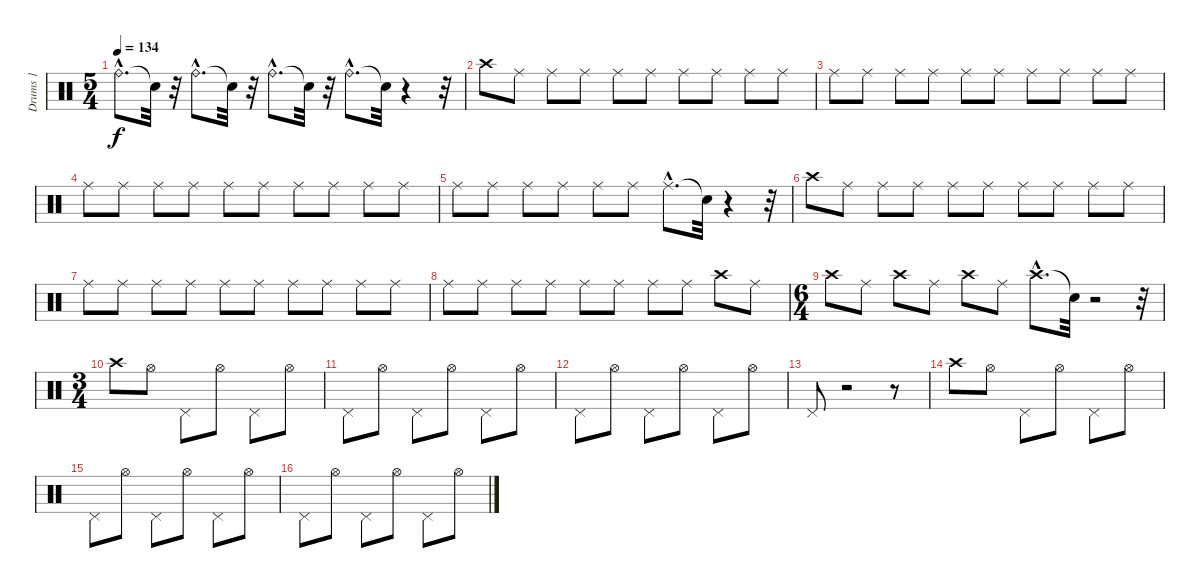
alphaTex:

\track ("Drums 1" "Drums 1") {instrument percussion}
\staff {score}
\articulation defaults
\ts (5 4)
\tempo 134
\clef neutral
\ks c "Ride (bell)"{hac}.8{d dy f} "Snare (hit)"{t}.32
r.32 "Ride (bell)"{hac}.8{d} "Snare (hit)"{t}.32 r.32 "Ride (bell)"{hac}.8{d} "Snare (hit)"{t}.32 r.32 "Ride (bell)"{hac}.8{d} "Snare (hit)"{t}.32 r.4 r.32 |
"Crash high (hit)".8 "Ride (middle)".8 "Ride (middle)".8 "Ride (middle)".8 "Ride (middle)".8 "Ride (middle)".8 "Ride (middle)".8 "Ride (middle)".8 "Ride (middle)".8 "Ride (middle)".8 |
"Ride (middle)".8 "Ride (middle)".8 "Ride (middle)".8 "Ride (middle)".8 "Ride (middle)".8 "Ride (middle)".8 "Ride (middle)".8 "Ride (middle)".8 "Ride (middle)".8 "Ride (middle)".8 |
"Ride (middle)".8 "Ride (middle)".8 "Ride (middle)".8 "Ride (middle)".8 "Ride (middle)".8 "Ride (middle)".8 "Ride (middle)".8 "Ride (middle)".8 "Ride (middle)".8 "Ride (middle)".8 |
"Ride (middle)".8 "Ride (middle)".8 "Ride (middle)".8 "Ride (middle)".8 "Ride (middle)".8 "Ride (middle)".8 "Ride (middle)"{hac}.8{d} "Snare (hit)"{t}.32 r.4 r.32 |
"Crash high (hit)".8 "Ride (middle)".8 "Ride (middle)".8 "Ride (middle)".8 "Ride (middle)".8 "Ride (middle)".8 "Ride (middle)".8 "Ride (middle)".8 "Ride (middle)".8 "Ride (middle)".8 |
"Ride (middle)".8 "Ride (middle)".8 "Ride (middle)".8 "Ride (middle)".8 "Ride (middle)".8 "Ride (middle)".8 "Ride (middle)".8 "Ride (middle)".8 "Ride (middle)".8 "Ride (middle)".8 |
"Ride (middle)".8 "Ride (middle)".8 "Ride (middle)".8 "Ride (middle)".8 "Ride (middle)".8 "Ride (middle)".8 "Ride (middle)".8 "Ride (middle)".8 "Crash high (hit)".8 "Ride (middle)".8 |
\ts (6 4)
"Crash high (hit)".8 "Ride (middle)".8 "Crash high (hit)".8 "Ride (middle)".8 "Crash high (hit)".8 "Ride (middle)".8 "Crash high (hit)"{hac}.8{d} "Snare (hit)"{t}.32 r.2 r.32 |
\ts (3 4)
"Crash high (hit)".8 "Hi-Hat (open)".8 "Pedal Hi-Hat (hit)".8 "Hi-Hat (open)".8 "Pedal Hi-Hat (hit)".8 "Hi-Hat (open)".8 |
"Pedal Hi-Hat (hit)".8 "Hi-Hat (open)".8 "Pedal Hi-Hat (hit)".8 "Hi-Hat (open)".8 "Pedal Hi-Hat (hit)".8 "Hi-Hat (open)".8 |
"Pedal Hi-Hat (hit)".8 "Hi-Hat (open)".8 "Pedal Hi-Hat (hit)".8 "Hi-Hat (open)".8 "Pedal Hi-Hat (hit)".8 "Hi-Hat (open)".8 |
"Pedal Hi-Hat (hit)".8 r.2 r.8 |
"Crash high (hit)".8 "Hi-Hat (open)".8 "Pedal Hi-Hat (hit)".8 "Hi-Hat (open)".8 "Pedal Hi-Hat (hit)".8 "Hi-Hat (open)".8 |
"Pedal Hi-Hat (hit)".8 "Hi-Hat (open)".8 "Pedal Hi-Hat (hit)".8 "Hi-Hat (open)".8 "Pedal Hi-Hat (hit)".8 "Hi-Hat (open)".8 |
"Pedal Hi-Hat (hit)".8 "Hi-Hat (open)".8 "Pedal Hi-Hat (hit)".8 "Hi-Hat (open)".8 "Pedal Hi-Hat (hit)".8 "Hi-Hat (open)".8
